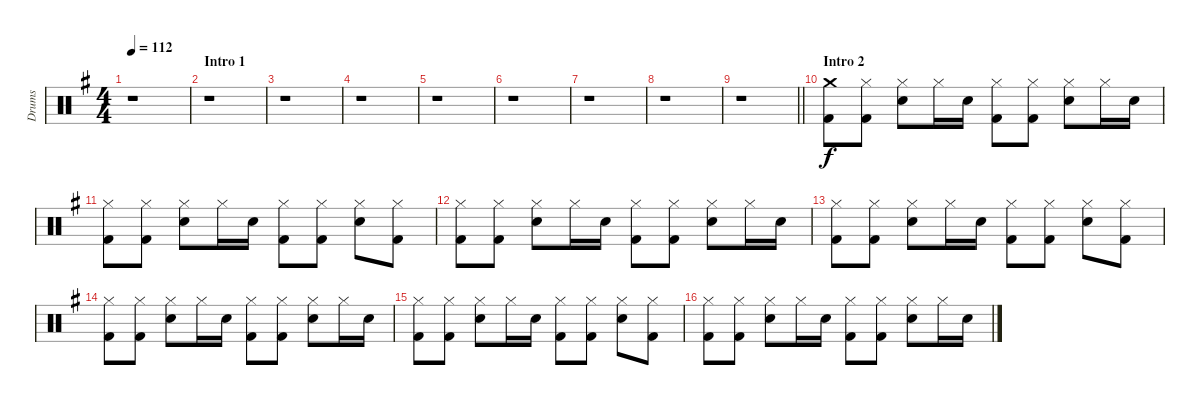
\track ("Drums" "Drums") {instrument percussion}
\staff {score}
\articulation defaults
\ts (4 4)
\tempo 112
\clef neutral
\ks g
r.1{dy f} |
\section ("" "Intro 1")
r.1 |
r.1 |
r.1 |
r.1 |
r.1 |
r.1 |
r.1 |
\barLineRight lightlight
r.1 |
\section ("" "Intro 2")
("Crash medium (hit)" "Kick (hit) 2").8 ("Hi-Hat (closed)" "Kick (hit) 2").8 ("Hi-Hat (closed)" "Electric Snare (hit)").8 "Hi-Hat (closed)".16 "Electric Snare (hit)".16 ("Hi-Hat (closed)" "Kick (hit) 2").8 ("Hi-Hat (closed)" "Kick (hit) 2").8 ("Hi-Hat (closed)" "Electric Snare (hit)").8 "Hi-Hat (closed)".16 "Electric Snare (hit)".16 |
("Hi-Hat (closed)" "Kick (hit) 2").8 ("Hi-Hat (closed)" "Kick (hit) 2").8 ("Hi-Hat (closed)" "Electric Snare (hit)").8 "Hi-Hat (closed)".16 "Electric Snare (hit)".16 ("Hi-Hat (closed)" "Kick (hit) 2").8 ("Hi-Hat (closed)" "Kick (hit) 2").8 ("Hi-Hat (closed)" "Electric Snare (hit)").8 ("Hi-Hat (closed)" "Kick (hit) 2").8 |
("Hi-Hat (closed)" "Kick (hit) 2").8 ("Hi-Hat (closed)" "Kick (hit) 2").8 ("Hi-Hat (closed)" "Electric Snare (hit)").8 "Hi-Hat (closed)".16 "Electric Snare (hit)".16 ("Hi-Hat (closed)" "Kick (hit) 2").8 ("Hi-Hat (closed)" "Kick (hit) 2").8 ("Hi-Hat (closed)" "Electric Snare (hit)").8 "Hi-Hat (closed)".16 "Electric Snare (hit)".16 |
("Hi-Hat (closed)" "Kick (hit) 2").8 ("Hi-Hat (closed)" "Kick (hit) 2").8 ("Hi-Hat (closed)" "Electric Snare (hit)").8 "Hi-Hat (closed)".16 "Electric Snare (hit)".16 ("Hi-Hat (closed)" "Kick (hit) 2").8 ("Hi-Hat (closed)" "Kick (hit) 2").8 ("Hi-Hat (closed)" "Electric Snare (hit)").8 ("Hi-Hat (closed)" "Kick (hit) 2").8 |
("Hi-Hat (closed)" "Kick (hit) 2").8 ("Hi-Hat (closed)" "Kick (hit) 2").8 ("Hi-Hat (closed)" "Electric Snare (hit)").8 "Hi-Hat (closed)".16 "Electric Snare (hit)".16 ("Hi-Hat (closed)" "Kick (hit) 2").8 ("Hi-Hat (closed)" "Kick (hit) 2").8 ("Hi-Hat (closed)" "Electric Snare (hit)").8 "Hi-Hat (closed)".16 "Electric Snare (hit)".16 |
("Hi-Hat (closed)" "Kick (hit) 2").8 ("Hi-Hat (closed)" "Kick (hit) 2").8 ("Hi-Hat (closed)" "Electric Snare (hit)").8 "Hi-Hat (closed)".16 "Electric Snare (hit)".16 ("Hi-Hat (closed)" "Kick (hit) 2").8 ("Hi-Hat (closed)" "Kick (hit) 2").8 ("Hi-Hat (closed)" "Electric Snare (hit)").8 ("Hi-Hat (closed)" "Kick (hit) 2").8 |
("Hi-Hat (closed)" "Kick (hit) 2").8 ("Hi-Hat (closed)" "Kick (hit) 2").8 ("Hi-Hat (closed)" "Electric Snare (hit)").8 "Hi-Hat (closed)".16 "Electric Snare (hit)".16 ("Hi-Hat (closed)" "Kick (hit) 2").8 ("Hi-Hat (closed)" "Kick (hit) 2").8 ("Hi-Hat (closed)" "Electric Snare (hit)").8 "Hi-Hat (closed)".16 "Electric Snare (hit)".16
